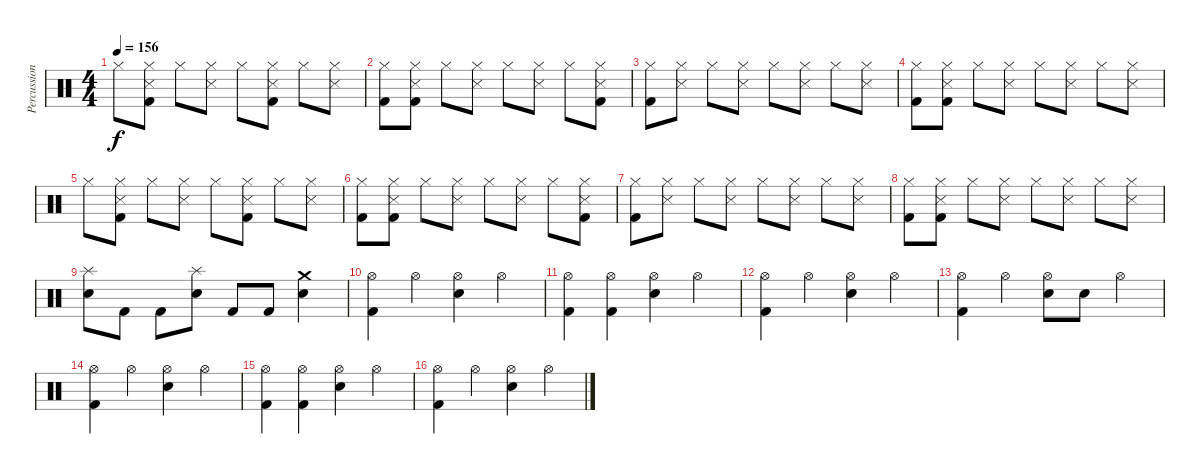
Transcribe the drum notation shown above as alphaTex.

\track ("Percussions" "Percussion") {instrument percussion}
\staff {score}
\articulation defaults
\ts (4 4)
\tempo 156
\clef neutral
\ks c "Hi-Hat (closed)".8{dy f}
("Hi-Hat (closed)" "Snare (side stick) 3" "Kick (hit) 2").8 "Hi-Hat (closed)".8 ("Hi-Hat (closed)" "Snare (side stick) 3").8 "Hi-Hat (closed)".8 ("Hi-Hat (closed)" "Snare (side stick) 3" "Kick (hit) 2").8 "Hi-Hat (closed)".8 ("Hi-Hat (closed)" "Snare (side stick) 3").8 |
("Hi-Hat (closed)" "Kick (hit) 2").8 ("Hi-Hat (closed)" "Snare (side stick) 3" "Kick (hit) 2").8 "Hi-Hat (closed)".8 ("Hi-Hat (closed)" "Snare (side stick) 3").8 "Hi-Hat (closed)".8 ("Hi-Hat (closed)" "Snare (side stick) 3").8 "Hi-Hat (closed)".8 ("Hi-Hat (closed)" "Snare (side stick) 3" "Kick (hit) 2").8 |
("Hi-Hat (closed)" "Kick (hit) 2").8 ("Hi-Hat (closed)" "Snare (side stick) 3").8 "Hi-Hat (closed)".8 ("Hi-Hat (closed)" "Snare (side stick) 3").8 "Hi-Hat (closed)".8 ("Hi-Hat (closed)" "Snare (side stick) 3").8 "Hi-Hat (closed)".8 ("Hi-Hat (closed)" "Snare (side stick) 3").8 |
("Hi-Hat (closed)" "Kick (hit) 2").8 ("Hi-Hat (closed)" "Snare (side stick) 3" "Kick (hit) 2").8 "Hi-Hat (closed)".8 ("Hi-Hat (closed)" "Snare (side stick) 3").8 "Hi-Hat (closed)".8 ("Hi-Hat (closed)" "Snare (side stick) 3").8 "Hi-Hat (closed)".8 ("Hi-Hat (closed)" "Snare (side stick) 3").8 |
"Hi-Hat (closed)".8 ("Hi-Hat (closed)" "Snare (side stick) 3" "Kick (hit) 2").8 "Hi-Hat (closed)".8 ("Hi-Hat (closed)" "Snare (side stick) 3").8 "Hi-Hat (closed)".8 ("Hi-Hat (closed)" "Snare (side stick) 3" "Kick (hit) 2").8 "Hi-Hat (closed)".8 ("Hi-Hat (closed)" "Snare (side stick) 3").8 |
("Hi-Hat (closed)" "Kick (hit) 2").8 ("Hi-Hat (closed)" "Snare (side stick) 3" "Kick (hit) 2").8 "Hi-Hat (closed)".8 ("Hi-Hat (closed)" "Snare (side stick) 3").8 "Hi-Hat (closed)".8 ("Hi-Hat (closed)" "Snare (side stick) 3").8 "Hi-Hat (closed)".8 ("Hi-Hat (closed)" "Snare (side stick) 3" "Kick (hit) 2").8 |
("Hi-Hat (closed)" "Kick (hit) 2").8 ("Hi-Hat (closed)" "Snare (side stick) 3").8 "Hi-Hat (closed)".8 ("Hi-Hat (closed)" "Snare (side stick) 3").8 "Hi-Hat (closed)".8 ("Hi-Hat (closed)" "Snare (side stick) 3").8 "Hi-Hat (closed)".8 ("Hi-Hat (closed)" "Snare (side stick) 3").8 |
("Hi-Hat (closed)" "Kick (hit) 2").8 ("Hi-Hat (closed)" "Snare (side stick) 3" "Kick (hit) 2").8 "Hi-Hat (closed)".8 ("Hi-Hat (closed)" "Snare (side stick) 3").8 "Hi-Hat (closed)".8 ("Hi-Hat (closed)" "Snare (side stick) 3").8 "Hi-Hat (closed)".8 ("Hi-Hat (closed)" "Snare (side stick) 3").8 |
("Splash (hit)" "Electric Snare (hit)").8 "Kick (hit) 2".8 "Kick (hit) 2".8 ("Splash (hit)" "Electric Snare (hit)").8 "Kick (hit) 2".8 "Kick (hit) 2".8 ("Crash medium (hit)" "Electric Snare (hit)").4 |
("Hi-Hat (open)" "Kick (hit) 2").4 "Hi-Hat (open)".4 ("Hi-Hat (open)" "Electric Snare (hit)").4 "Hi-Hat (open)".4 |
("Hi-Hat (open)" "Kick (hit) 2").4 ("Hi-Hat (open)" "Kick (hit) 2").4 ("Hi-Hat (open)" "Electric Snare (hit)").4 "Hi-Hat (open)".4 |
("Hi-Hat (open)" "Kick (hit) 2").4 "Hi-Hat (open)".4 ("Hi-Hat (open)" "Electric Snare (hit)").4 "Hi-Hat (open)".4 |
("Hi-Hat (open)" "Kick (hit) 2").4 "Hi-Hat (open)".4 ("Hi-Hat (open)" "Electric Snare (hit)").8 "Electric Snare (hit)".8 "Hi-Hat (open)".4 |
("Hi-Hat (open)" "Kick (hit) 2").4 "Hi-Hat (open)".4 ("Hi-Hat (open)" "Electric Snare (hit)").4 "Hi-Hat (open)".4 |
("Hi-Hat (open)" "Kick (hit) 2").4 ("Hi-Hat (open)" "Kick (hit) 2").4 ("Hi-Hat (open)" "Electric Snare (hit)").4 "Hi-Hat (open)".4 |
("Hi-Hat (open)" "Kick (hit) 2").4 "Hi-Hat (open)".4 ("Hi-Hat (open)" "Electric Snare (hit)").4 "Hi-Hat (open)".4
